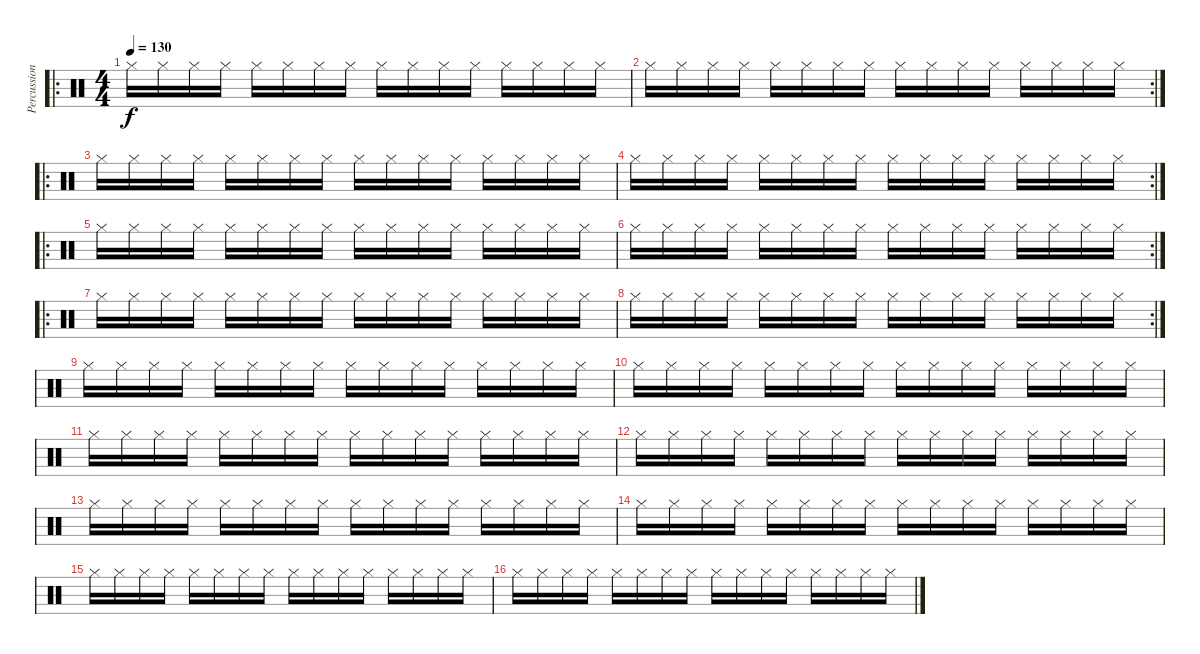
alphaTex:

\track ("Percussion" "Percussion") {instrument percussion}
\staff {score}
\articulation defaults
\ro
\ts (4 4)
\tempo 130
\clef neutral
\ks c "Hi-Hat (closed)".16{dy f} "Hi-Hat (closed)".16 "Hi-Hat (closed)".16 "Hi-Hat (closed)".16 "Hi-Hat (closed)".16 "Hi-Hat (closed)".16 "Hi-Hat (closed)".16 "Hi-Hat (closed)".16 "Hi-Hat (closed)".16 "Hi-Hat (closed)".16 "Hi-Hat (closed)".16 "Hi-Hat (closed)".16 "Hi-Hat (closed)".16 "Hi-Hat (closed)".16 "Hi-Hat (closed)".16 "Hi-Hat (closed)".16
|
\rc 2 "Hi-Hat (closed)".16 "Hi-Hat (closed)".16 "Hi-Hat (closed)".16 "Hi-Hat (closed)".16 "Hi-Hat (closed)".16 "Hi-Hat (closed)".16 "Hi-Hat (closed)".16 "Hi-Hat (closed)".16 "Hi-Hat (closed)".16 "Hi-Hat (closed)".16 "Hi-Hat (closed)".16 "Hi-Hat (closed)".16 "Hi-Hat (closed)".16 "Hi-Hat (closed)".16 "Hi-Hat (closed)".16 "Hi-Hat (closed)".16
|
\ro "Hi-Hat (closed)".16 "Hi-Hat (closed)".16 "Hi-Hat (closed)".16 "Hi-Hat (closed)".16 "Hi-Hat (closed)".16 "Hi-Hat (closed)".16 "Hi-Hat (closed)".16 "Hi-Hat (closed)".16 "Hi-Hat (closed)".16 "Hi-Hat (closed)".16 "Hi-Hat (closed)".16 "Hi-Hat (closed)".16 "Hi-Hat (closed)".16 "Hi-Hat (closed)".16 "Hi-Hat (closed)".16 "Hi-Hat (closed)".16
|
\rc 2 "Hi-Hat (closed)".16 "Hi-Hat (closed)".16 "Hi-Hat (closed)".16 "Hi-Hat (closed)".16 "Hi-Hat (closed)".16 "Hi-Hat (closed)".16 "Hi-Hat (closed)".16 "Hi-Hat (closed)".16 "Hi-Hat (closed)".16 "Hi-Hat (closed)".16 "Hi-Hat (closed)".16 "Hi-Hat (closed)".16 "Hi-Hat (closed)".16 "Hi-Hat (closed)".16 "Hi-Hat (closed)".16 "Hi-Hat (closed)".16
|
\ro "Hi-Hat (closed)".16 "Hi-Hat (closed)".16 "Hi-Hat (closed)".16 "Hi-Hat (closed)".16 "Hi-Hat (closed)".16 "Hi-Hat (closed)".16 "Hi-Hat (closed)".16 "Hi-Hat (closed)".16 "Hi-Hat (closed)".16 "Hi-Hat (closed)".16 "Hi-Hat (closed)".16 "Hi-Hat (closed)".16 "Hi-Hat (closed)".16 "Hi-Hat (closed)".16 "Hi-Hat (closed)".16 "Hi-Hat (closed)".16
|
\rc 2 "Hi-Hat (closed)".16 "Hi-Hat (closed)".16 "Hi-Hat (closed)".16 "Hi-Hat (closed)".16 "Hi-Hat (closed)".16 "Hi-Hat (closed)".16 "Hi-Hat (closed)".16 "Hi-Hat (closed)".16 "Hi-Hat (closed)".16 "Hi-Hat (closed)".16 "Hi-Hat (closed)".16 "Hi-Hat (closed)".16 "Hi-Hat (closed)".16 "Hi-Hat (closed)".16 "Hi-Hat (closed)".16 "Hi-Hat (closed)".16
|
\ro "Hi-Hat (closed)".16 "Hi-Hat (closed)".16 "Hi-Hat (closed)".16 "Hi-Hat (closed)".16 "Hi-Hat (closed)".16 "Hi-Hat (closed)".16 "Hi-Hat (closed)".16 "Hi-Hat (closed)".16 "Hi-Hat (closed)".16 "Hi-Hat (closed)".16 "Hi-Hat (closed)".16 "Hi-Hat (closed)".16 "Hi-Hat (closed)".16 "Hi-Hat (closed)".16 "Hi-Hat (closed)".16 "Hi-Hat (closed)".16
|
\rc 2 "Hi-Hat (closed)".16 "Hi-Hat (closed)".16 "Hi-Hat (closed)".16 "Hi-Hat (closed)".16 "Hi-Hat (closed)".16 "Hi-Hat (closed)".16 "Hi-Hat (closed)".16 "Hi-Hat (closed)".16 "Hi-Hat (closed)".16 "Hi-Hat (closed)".16 "Hi-Hat (closed)".16 "Hi-Hat (closed)".16 "Hi-Hat (closed)".16 "Hi-Hat (closed)".16 "Hi-Hat (closed)".16 "Hi-Hat (closed)".16
|
"Hi-Hat (closed)".16 "Hi-Hat (closed)".16 "Hi-Hat (closed)".16 "Hi-Hat (closed)".16 "Hi-Hat (closed)".16 "Hi-Hat (closed)".16 "Hi-Hat (closed)".16 "Hi-Hat (closed)".16 "Hi-Hat (closed)".16 "Hi-Hat (closed)".16 "Hi-Hat (closed)".16 "Hi-Hat (closed)".16 "Hi-Hat (closed)".16 "Hi-Hat (closed)".16 "Hi-Hat (closed)".16 "Hi-Hat (closed)".16 |
"Hi-Hat (closed)".16 "Hi-Hat (closed)".16 "Hi-Hat (closed)".16 "Hi-Hat (closed)".16 "Hi-Hat (closed)".16 "Hi-Hat (closed)".16 "Hi-Hat (closed)".16 "Hi-Hat (closed)".16 "Hi-Hat (closed)".16 "Hi-Hat (closed)".16 "Hi-Hat (closed)".16 "Hi-Hat (closed)".16 "Hi-Hat (closed)".16 "Hi-Hat (closed)".16 "Hi-Hat (closed)".16 "Hi-Hat (closed)".16 |
"Hi-Hat (closed)".16 "Hi-Hat (closed)".16 "Hi-Hat (closed)".16 "Hi-Hat (closed)".16 "Hi-Hat (closed)".16 "Hi-Hat (closed)".16 "Hi-Hat (closed)".16 "Hi-Hat (closed)".16 "Hi-Hat (closed)".16 "Hi-Hat (closed)".16 "Hi-Hat (closed)".16 "Hi-Hat (closed)".16 "Hi-Hat (closed)".16 "Hi-Hat (closed)".16 "Hi-Hat (closed)".16 "Hi-Hat (closed)".16 |
"Hi-Hat (closed)".16 "Hi-Hat (closed)".16 "Hi-Hat (closed)".16 "Hi-Hat (closed)".16 "Hi-Hat (closed)".16 "Hi-Hat (closed)".16 "Hi-Hat (closed)".16 "Hi-Hat (closed)".16 "Hi-Hat (closed)".16 "Hi-Hat (closed)".16 "Hi-Hat (closed)".16 "Hi-Hat (closed)".16 "Hi-Hat (closed)".16 "Hi-Hat (closed)".16 "Hi-Hat (closed)".16 "Hi-Hat (closed)".16 |
"Hi-Hat (closed)".16 "Hi-Hat (closed)".16 "Hi-Hat (closed)".16 "Hi-Hat (closed)".16 "Hi-Hat (closed)".16 "Hi-Hat (closed)".16 "Hi-Hat (closed)".16 "Hi-Hat (closed)".16 "Hi-Hat (closed)".16 "Hi-Hat (closed)".16 "Hi-Hat (closed)".16 "Hi-Hat (closed)".16 "Hi-Hat (closed)".16 "Hi-Hat (closed)".16 "Hi-Hat (closed)".16 "Hi-Hat (closed)".16 |
"Hi-Hat (closed)".16 "Hi-Hat (closed)".16 "Hi-Hat (closed)".16 "Hi-Hat (closed)".16 "Hi-Hat (closed)".16 "Hi-Hat (closed)".16 "Hi-Hat (closed)".16 "Hi-Hat (closed)".16 "Hi-Hat (closed)".16 "Hi-Hat (closed)".16 "Hi-Hat (closed)".16 "Hi-Hat (closed)".16 "Hi-Hat (closed)".16 "Hi-Hat (closed)".16 "Hi-Hat (closed)".16 "Hi-Hat (closed)".16 |
"Hi-Hat (closed)".16 "Hi-Hat (closed)".16 "Hi-Hat (closed)".16 "Hi-Hat (closed)".16 "Hi-Hat (closed)".16 "Hi-Hat (closed)".16 "Hi-Hat (closed)".16 "Hi-Hat (closed)".16 "Hi-Hat (closed)".16 "Hi-Hat (closed)".16 "Hi-Hat (closed)".16 "Hi-Hat (closed)".16 "Hi-Hat (closed)".16 "Hi-Hat (closed)".16 "Hi-Hat (closed)".16 "Hi-Hat (closed)".16 |
"Hi-Hat (closed)".16 "Hi-Hat (closed)".16 "Hi-Hat (closed)".16 "Hi-Hat (closed)".16 "Hi-Hat (closed)".16 "Hi-Hat (closed)".16 "Hi-Hat (closed)".16 "Hi-Hat (closed)".16 "Hi-Hat (closed)".16 "Hi-Hat (closed)".16 "Hi-Hat (closed)".16 "Hi-Hat (closed)".16 "Hi-Hat (closed)".16 "Hi-Hat (closed)".16 "Hi-Hat (closed)".16 "Hi-Hat (closed)".16
